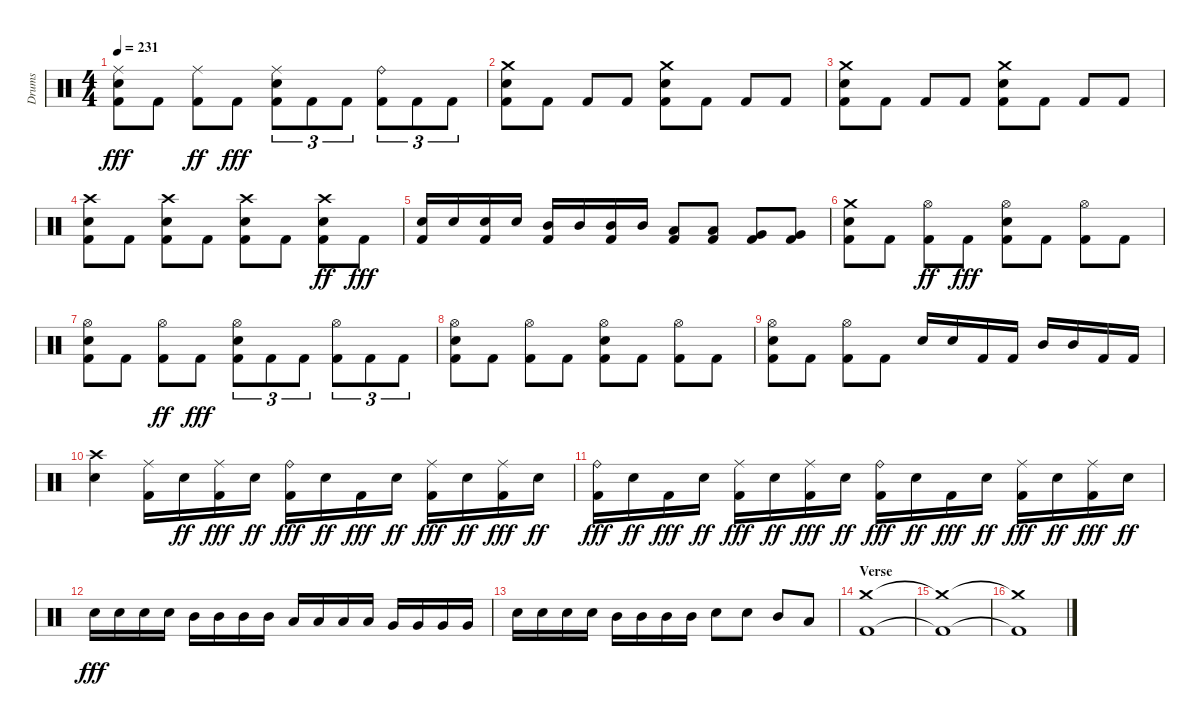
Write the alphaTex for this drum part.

\track ("Drums" "Drums") {instrument percussion}
\staff {score}
\articulation defaults
\ts (4 4)
\tempo 231
\clef neutral
\ks aminor
("Ride (middle)" "Snare (hit) 2" "Kick (hit) 2").8{dy fff} "Kick (hit) 2".8 ("Ride (middle)" "Kick (hit) 2").8{dy ff} "Kick (hit) 2".8{dy fff} ("Ride (middle)" "Kick (hit) 2" "Snare (hit) 2").8{tu (3 2)} "Kick (hit) 2".8{tu (3 2)} "Kick (hit) 2".8{tu (3 2)} ("Ride (bell)" "Kick (hit) 2").8{tu (3 2)} "Kick (hit) 2".8{tu (3 2)} "Kick (hit) 2".8{tu (3 2)} |
("Kick (hit) 2" "Snare (hit) 2" "Crash medium (hit)").8 "Kick (hit) 2".8 "Kick (hit) 2".8 "Kick (hit) 2".8 ("Kick (hit) 2" "Snare (hit) 2" "Crash medium (hit)").8 "Kick (hit) 2".8 "Kick (hit) 2".8 "Kick (hit) 2".8 |
("Kick (hit) 2" "Crash medium (hit)" "Snare (hit) 2").8 "Kick (hit) 2".8 "Kick (hit) 2".8 "Kick (hit) 2".8 ("Crash medium (hit)" "Kick (hit) 2" "Snare (hit) 2").8 "Kick (hit) 2".8 "Kick (hit) 2".8 "Kick (hit) 2".8 |
("Snare (hit) 2" "Crash high (hit)" "Kick (hit) 2").8 "Kick (hit) 2".8 ("Kick (hit) 2" "Snare (hit) 2" "Crash high (hit)").8 "Kick (hit) 2".8 ("Crash high (hit)" "Kick (hit) 2" "Snare (hit) 2").8 "Kick (hit) 2".8 ("Crash high (hit)" "Kick (hit) 2" "Snare (hit) 2").8{dy ff} "Kick (hit) 2".8{dy fff} |
("Snare (hit) 2" "Kick (hit) 2").16 "Snare (hit) 2".16 ("Snare (hit) 2" "Kick (hit) 2").16 "Snare (hit) 2".16 ("Mid Tom (hit)" "Kick (hit) 2").16 "Mid Tom (hit)".16 ("Mid Tom (hit)" "Kick (hit) 2").16 "Mid Tom (hit)".16 ("Kick (hit) 2" "Low Tom (hit)").8 ("Low Tom (hit)" "Kick (hit) 2").8 ("Kick (hit) 2" "Very Low Tom (hit)").8 ("Kick (hit) 2" "Very Low Tom (hit)").8 |
("Crash medium (hit)" "Kick (hit) 2" "Snare (hit) 2").8 "Kick (hit) 2".8 ("Hi-Hat (open)" "Kick (hit) 2").8{dy ff} "Kick (hit) 2".8{dy fff} ("Snare (hit) 2" "Hi-Hat (open)" "Kick (hit) 2").8 "Kick (hit) 2".8 ("Kick (hit) 2" "Hi-Hat (open)").8 "Kick (hit) 2".8 |
("Kick (hit) 2" "Snare (hit) 2" "Hi-Hat (open)").8 "Kick (hit) 2".8 ("Hi-Hat (open)" "Kick (hit) 2").8{dy ff} "Kick (hit) 2".8{dy fff} ("Kick (hit) 2" "Snare (hit) 2" "Hi-Hat (open)").8{tu (3 2)} "Kick (hit) 2".8{tu (3 2)} "Kick (hit) 2".8{tu (3 2)} ("Hi-Hat (open)" "Kick (hit) 2").8{tu (3 2)} "Kick (hit) 2".8{tu (3 2)} "Kick (hit) 2".8{tu (3 2)} |
("Kick (hit) 2" "Snare (hit) 2" "Hi-Hat (open)").8 "Kick (hit) 2".8 ("Kick (hit) 2" "Hi-Hat (open)").8 "Kick (hit) 2".8 ("Snare (hit) 2" "Hi-Hat (open)" "Kick (hit) 2").8 "Kick (hit) 2".8 ("Kick (hit) 2" "Hi-Hat (open)").8 "Kick (hit) 2".8 |
("Hi-Hat (open)" "Kick (hit) 2" "Snare (hit) 2").8 "Kick (hit) 2".8 ("Kick (hit) 2" "Hi-Hat (open)").8 "Kick (hit) 2".8 "Snare (hit) 2".16 "Snare (hit) 2".16 "Kick (hit) 2".16 "Kick (hit) 2".16 "Mid Tom (hit)".16 "Mid Tom (hit)".16 "Kick (hit) 2".16 "Kick (hit) 2".16 |
("Snare (hit) 2" "Crash high (hit)").4 ("Kick (hit) 2" "Ride (middle)").16 "Snare (hit) 2".16{dy ff} ("Ride (middle)" "Kick (hit) 2").16{dy fff} "Snare (hit) 2".16{dy ff} ("Ride (bell)" "Kick (hit) 2").16{dy fff} "Snare (hit) 2".16{dy ff} "Kick (hit) 2".16{dy fff} "Snare (hit) 2".16{dy ff} ("Kick (hit) 2" "Ride (middle)").16{dy fff} "Snare (hit) 2".16{dy ff} ("Ride (middle)" "Kick (hit) 2").16{dy fff} "Snare (hit) 2".16{dy ff} |
("Kick (hit) 2" "Ride (bell)").16{dy fff} "Snare (hit) 2".16{dy ff} "Kick (hit) 2".16{dy fff} "Snare (hit) 2".16{dy ff} ("Ride (middle)" "Kick (hit) 2").16{dy fff} "Snare (hit) 2".16{dy ff} ("Ride (middle)" "Kick (hit) 2").16{dy fff} "Snare (hit) 2".16{dy ff} ("Kick (hit) 2" "Ride (bell)").16{dy fff} "Snare (hit) 2".16{dy ff} "Kick (hit) 2".16{dy fff} "Snare (hit) 2".16{dy ff} ("Kick (hit) 2" "Ride (middle)").16{dy fff} "Snare (hit) 2".16{dy ff} ("Kick (hit) 2" "Ride (middle)").16{dy fff} "Snare (hit) 2".16{dy ff} |
"Snare (hit) 2".16{dy fff} "Snare (hit) 2".16 "Snare (hit) 2".16 "Snare (hit) 2".16 "Mid Tom (hit)".16 "Mid Tom (hit)".16 "Mid Tom (hit)".16 "Mid Tom (hit)".16 "Low Tom (hit)".16 "Low Tom (hit)".16 "Low Tom (hit)".16 "Low Tom (hit)".16 "Very Low Tom (hit)".16 "Very Low Tom (hit)".16 "Very Low Tom (hit)".16 "Very Low Tom (hit)".16 |
"Snare (hit) 2".16 "Snare (hit) 2".16 "Snare (hit) 2".16 "Snare (hit) 2".16 "Mid Tom (hit)".16 "Mid Tom (hit)".16 "Mid Tom (hit)".16 "Mid Tom (hit)".16 "Snare (hit) 2".8 "Snare (hit) 2".8 "Mid Tom (hit)".8 "Low Tom (hit)".8 |
\section ("" "Verse")
("Kick (hit) 2" "Crash medium (hit)").1 |
("Kick (hit) 2"{t} "Crash medium (hit)"{t}).1 |
("Kick (hit) 2"{t} "Crash medium (hit)"{t}).1
